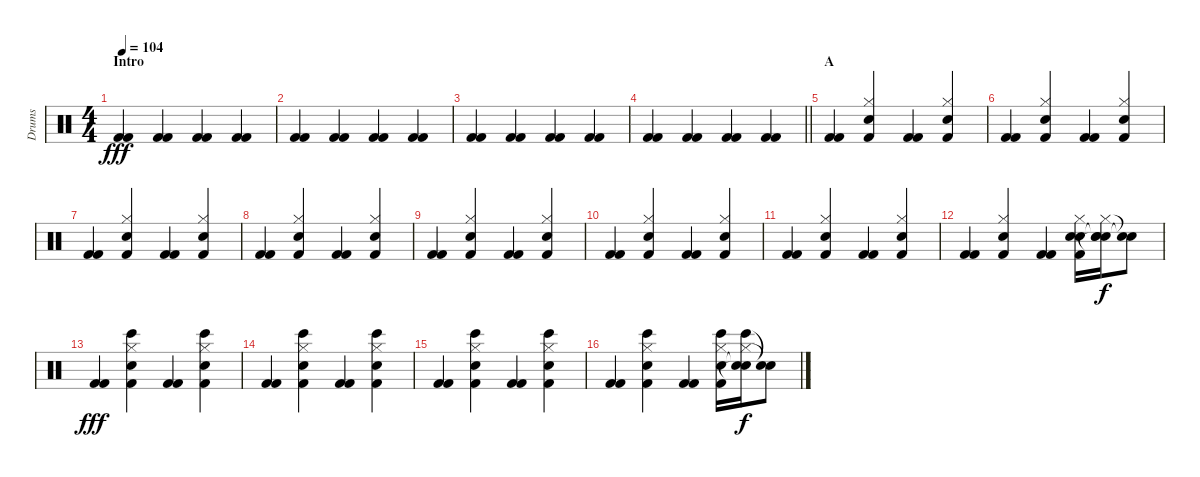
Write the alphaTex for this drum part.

\track ("Drums" "Drums") {instrument percussion}
\staff {score}
\articulation defaults
\ts (4 4)
\section ("" "Intro")
\tempo 104
\clef neutral
\ks c
("Kick (hit) 2" "Kick (hit) 2").4{dy fff} ("Kick (hit) 2" "Kick (hit) 2").4 ("Kick (hit) 2" "Kick (hit) 2").4 ("Kick (hit) 2" "Kick (hit) 2").4 |
("Kick (hit) 2" "Kick (hit) 2").4 ("Kick (hit) 2" "Kick (hit) 2").4 ("Kick (hit) 2" "Kick (hit) 2").4 ("Kick (hit) 2" "Kick (hit) 2").4 |
("Kick (hit) 2" "Kick (hit) 2").4 ("Kick (hit) 2" "Kick (hit) 2").4 ("Kick (hit) 2" "Kick (hit) 2").4 ("Kick (hit) 2" "Kick (hit) 2").4 |
\barLineRight lightlight
("Kick (hit) 2" "Kick (hit) 2").4 ("Kick (hit) 2" "Kick (hit) 2").4 ("Kick (hit) 2" "Kick (hit) 2").4 ("Kick (hit) 2" "Kick (hit) 2").4 |
\section ("" "A")
("Kick (hit) 2" "Kick (hit) 2").4 ("Hi-Hat (closed)" "Snare (hit) 2" "Kick (hit) 2").4 ("Kick (hit) 2" "Kick (hit) 2").4 ("Hi-Hat (closed)" "Snare (hit) 2" "Kick (hit) 2").4 |
("Kick (hit) 2" "Kick (hit) 2").4 ("Hi-Hat (closed)" "Snare (hit) 2" "Kick (hit) 2").4 ("Kick (hit) 2" "Kick (hit) 2").4 ("Hi-Hat (closed)" "Snare (hit) 2" "Kick (hit) 2").4 |
("Kick (hit) 2" "Kick (hit) 2").4 ("Hi-Hat (closed)" "Snare (hit) 2" "Kick (hit) 2").4 ("Kick (hit) 2" "Kick (hit) 2").4 ("Hi-Hat (closed)" "Snare (hit) 2" "Kick (hit) 2").4 |
("Kick (hit) 2" "Kick (hit) 2").4 ("Hi-Hat (closed)" "Snare (hit) 2" "Kick (hit) 2").4 ("Kick (hit) 2" "Kick (hit) 2").4 ("Hi-Hat (closed)" "Snare (hit) 2" "Kick (hit) 2").4 |
("Kick (hit) 2" "Kick (hit) 2").4 ("Hi-Hat (closed)" "Snare (hit) 2" "Kick (hit) 2").4 ("Kick (hit) 2" "Kick (hit) 2").4 ("Hi-Hat (closed)" "Snare (hit) 2" "Kick (hit) 2").4 |
("Kick (hit) 2" "Kick (hit) 2").4 ("Hi-Hat (closed)" "Snare (hit) 2" "Kick (hit) 2").4 ("Kick (hit) 2" "Kick (hit) 2").4 ("Hi-Hat (closed)" "Snare (hit) 2" "Kick (hit) 2").4 |
("Kick (hit) 2" "Kick (hit) 2").4 ("Hi-Hat (closed)" "Snare (hit) 2" "Kick (hit) 2").4 ("Kick (hit) 2" "Kick (hit) 2").4 ("Hi-Hat (closed)" "Snare (hit) 2" "Kick (hit) 2").4 |
("Kick (hit) 2" "Kick (hit) 2").4 ("Hi-Hat (closed)" "Snare (hit) 2" "Kick (hit) 2").4 ("Kick (hit) 2" "Kick (hit) 2").4 ("Hi-Hat (closed)" "Hand Clap (hit)" "Snare (hit) 2" "Kick (hit) 2").16 ("Hi-Hat (closed)" "Hand Clap (hit)" "Snare (hit)"{t} "Snare (hit)"{t}).16{dy f} ("Snare (hit)"{t} "Snare (hit)"{t}).8 |
("Kick (hit) 2" "Kick (hit) 2").4{dy fff} ("Hi-Hat (closed)" "Bongo High (hit)" "Snare (hit) 2" "Kick (hit) 2").4 ("Kick (hit) 2" "Kick (hit) 2").4 ("Hi-Hat (closed)" "Bongo High (hit)" "Snare (hit) 2" "Kick (hit) 2").4 |
("Kick (hit) 2" "Kick (hit) 2").4 ("Hi-Hat (closed)" "Bongo High (hit)" "Snare (hit) 2" "Kick (hit) 2").4 ("Kick (hit) 2" "Kick (hit) 2").4 ("Hi-Hat (closed)" "Bongo High (hit)" "Snare (hit) 2" "Kick (hit) 2").4 |
("Kick (hit) 2" "Kick (hit) 2").4 ("Hi-Hat (closed)" "Bongo High (hit)" "Snare (hit) 2" "Kick (hit) 2").4 ("Kick (hit) 2" "Kick (hit) 2").4 ("Hi-Hat (closed)" "Bongo High (hit)" "Snare (hit) 2" "Kick (hit) 2").4 |
("Kick (hit) 2" "Kick (hit) 2").4 ("Hi-Hat (closed)" "Bongo High (hit)" "Snare (hit) 2" "Kick (hit) 2").4 ("Kick (hit) 2" "Kick (hit) 2").4 ("Hi-Hat (closed)" "Bongo High (hit)" "Snare (hit) 2" "Kick (hit) 2").16 ("Hi-Hat (closed)" "Bongo High (hit)" "Snare (hit)"{t} "Snare (hit)"{t}).16{dy f} ("Snare (hit)"{t} "Snare (hit)"{t}).8
